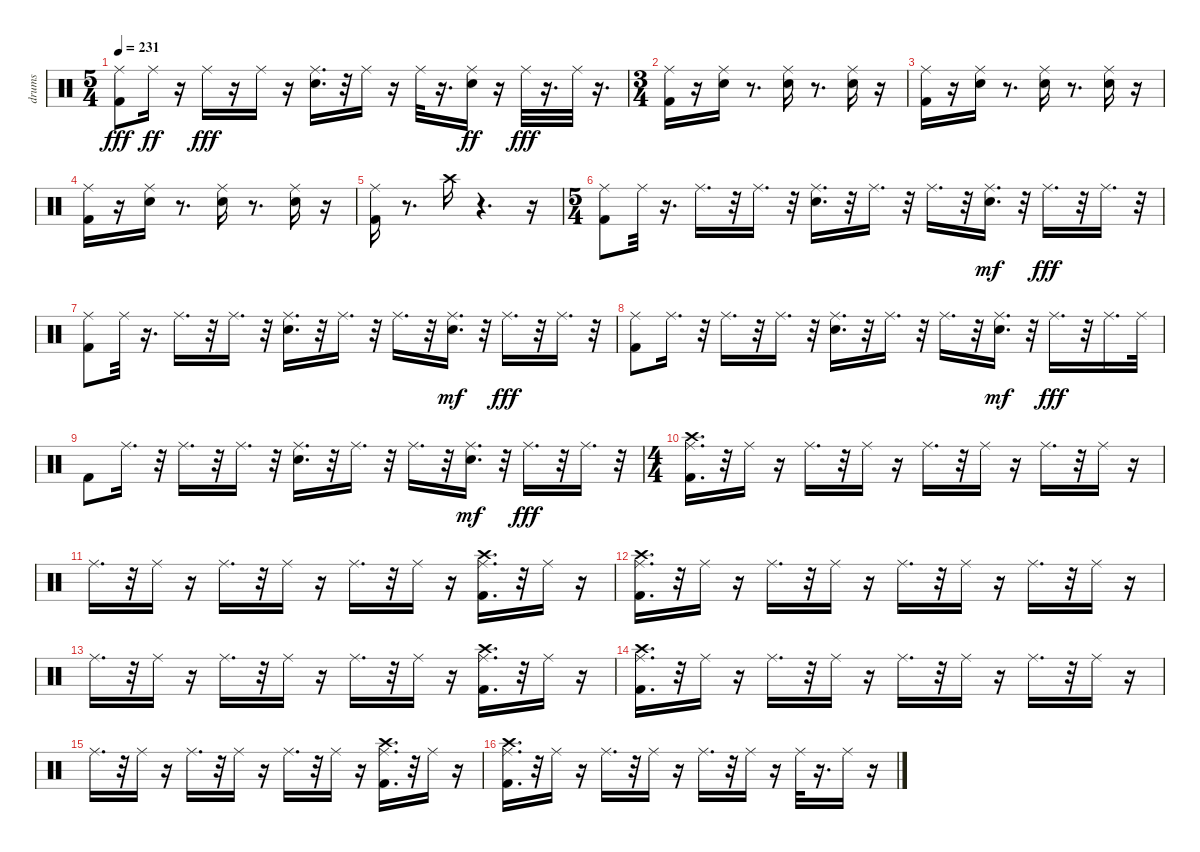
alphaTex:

\track ("drums               " "drums     ") {instrument percussion}
\staff {score}
\articulation defaults
\ts (5 4)
\tempo 231
\clef neutral
\ks c
("Kick (hit) 2" "Ride (middle)").8{dy fff} "Ride (middle)".16{dy ff} r.16 "Ride (middle)".16{dy fff} r.16 "Ride (middle)".16 r.16 ("Snare (hit) 2" "Ride (middle)").16{d} r.32 "Ride (middle)".16 r.16 "Ride (middle)".32 r.16{d} ("Snare (hit) 2" "Ride (middle)").16{dy ff} r.16 "Ride (middle)".32{dy fff} r.16{d} "Ride (middle)".32 r.16{d} |
\ts (3 4)
("Kick (hit) 2" "Ride (middle)").16 r.16 ("Snare (hit) 2" "Ride (middle)").16 r.8{d} ("Snare (hit) 2" "Ride (middle)").16 r.8{d} ("Snare (hit) 2" "Ride (middle)").16 r.16 |
("Kick (hit) 2" "Ride (middle)").16 r.16 ("Snare (hit) 2" "Ride (middle)").16 r.8{d} ("Snare (hit) 2" "Ride (middle)").16 r.8{d} ("Snare (hit) 2" "Ride (middle)").16 r.16 |
("Kick (hit) 2" "Ride (middle)").16 r.16 ("Snare (hit) 2" "Ride (middle)").16 r.8{d} ("Snare (hit) 2" "Ride (middle)").16 r.8{d} ("Snare (hit) 2" "Ride (middle)").16 r.16 |
("Kick (hit) 2" "Ride (middle)").16 r.8{d} "Crash high (hit)".16 r.4{d} r.16 |
\ts (5 4)
("Kick (hit) 2" "Ride (middle)").8 "Ride (middle)".32 r.16{d} "Ride (middle)".16{d} r.32 "Ride (middle)".16{d} r.32 ("Ride (middle)" "Snare (hit) 2").16{d} r.32 "Ride (middle)".16{d} r.32 "Ride (middle)".16{d} r.32 ("Ride (middle)" "Snare (hit) 2").16{d dy mf} r.32 "Ride (middle)".16{d dy fff} r.32 "Ride (middle)".16{d} r.32 |
("Kick (hit) 2" "Ride (middle)").8 "Ride (middle)".32 r.16{d} "Ride (middle)".16{d} r.32 "Ride (middle)".16{d} r.32 ("Ride (middle)" "Snare (hit) 2").16{d} r.32 "Ride (middle)".16{d} r.32 "Ride (middle)".16{d} r.32 ("Ride (middle)" "Snare (hit) 2").16{d dy mf} r.32 "Ride (middle)".16{d dy fff} r.32 "Ride (middle)".16{d} r.32 |
("Kick (hit) 2" "Ride (middle)").8 "Ride (middle)".16{d} r.32 "Ride (middle)".16{d} r.32 "Ride (middle)".16{d} r.32 ("Ride (middle)" "Snare (hit) 2").16{d} r.32 "Ride (middle)".16{d} r.32 "Ride (middle)".16{d} r.32 ("Ride (middle)" "Snare (hit) 2").16{d dy mf} r.32 "Ride (middle)".16{d dy fff} r.32 "Ride (middle)".16{d} "Ride (middle)".32 |
"Kick (hit) 2".8 "Ride (middle)".16{d} r.32 "Ride (middle)".16{d} r.32 "Ride (middle)".16{d} r.32 ("Ride (middle)" "Snare (hit) 2").16{d} r.32 "Ride (middle)".16{d} r.32 "Ride (middle)".16{d} r.32 ("Ride (middle)" "Snare (hit) 2").16{d dy mf} r.32 "Ride (middle)".16{d dy fff} r.32 "Ride (middle)".16{d} r.32 |
\ts (4 4)
("Kick (hit) 2" "Ride (middle)" "Crash high (hit)").16{d} r.32 "Ride (middle)".16 r.16 "Ride (middle)".16{d} r.32 "Ride (middle)".16 r.16 "Ride (middle)".16{d} r.32 "Ride (middle)".16 r.16 "Ride (middle)".16{d} r.32 "Ride (middle)".16 r.16 |
"Ride (middle)".16{d} r.32 "Ride (middle)".16 r.16 "Ride (middle)".16{d} r.32 "Ride (middle)".16 r.16 "Ride (middle)".16{d} r.32 "Ride (middle)".16 r.16 ("Kick (hit) 2" "Ride (middle)" "Crash high (hit)").16{d} r.32 "Ride (middle)".16 r.16 |
("Kick (hit) 2" "Ride (middle)" "Crash high (hit)").16{d} r.32 "Ride (middle)".16 r.16 "Ride (middle)".16{d} r.32 "Ride (middle)".16 r.16 "Ride (middle)".16{d} r.32 "Ride (middle)".16 r.16 "Ride (middle)".16{d} r.32 "Ride (middle)".16 r.16 |
"Ride (middle)".16{d} r.32 "Ride (middle)".16 r.16 "Ride (middle)".16{d} r.32 "Ride (middle)".16 r.16 "Ride (middle)".16{d} r.32 "Ride (middle)".16 r.16 ("Kick (hit) 2" "Ride (middle)" "Crash high (hit)").16{d} r.32 "Ride (middle)".16 r.16 |
("Kick (hit) 2" "Ride (middle)" "Crash high (hit)").16{d} r.32 "Ride (middle)".16 r.16 "Ride (middle)".16{d} r.32 "Ride (middle)".16 r.16 "Ride (middle)".16{d} r.32 "Ride (middle)".16 r.16 "Ride (middle)".16{d} r.32 "Ride (middle)".16 r.16 |
"Ride (middle)".16{d} r.32 "Ride (middle)".16 r.16 "Ride (middle)".16{d} r.32 "Ride (middle)".16 r.16 "Ride (middle)".16{d} r.32 "Ride (middle)".16 r.16 ("Kick (hit) 2" "Ride (middle)" "Crash high (hit)").16{d} r.32 "Ride (middle)".16 r.16 |
("Kick (hit) 2" "Ride (middle)" "Crash high (hit)").16{d} r.32 "Ride (middle)".16 r.16 "Ride (middle)".16{d} r.32 "Ride (middle)".16 r.16 "Ride (middle)".16{d} r.32 "Ride (middle)".16 r.16 "Ride (middle)".32 r.16{d} "Ride (middle)".16 r.16
